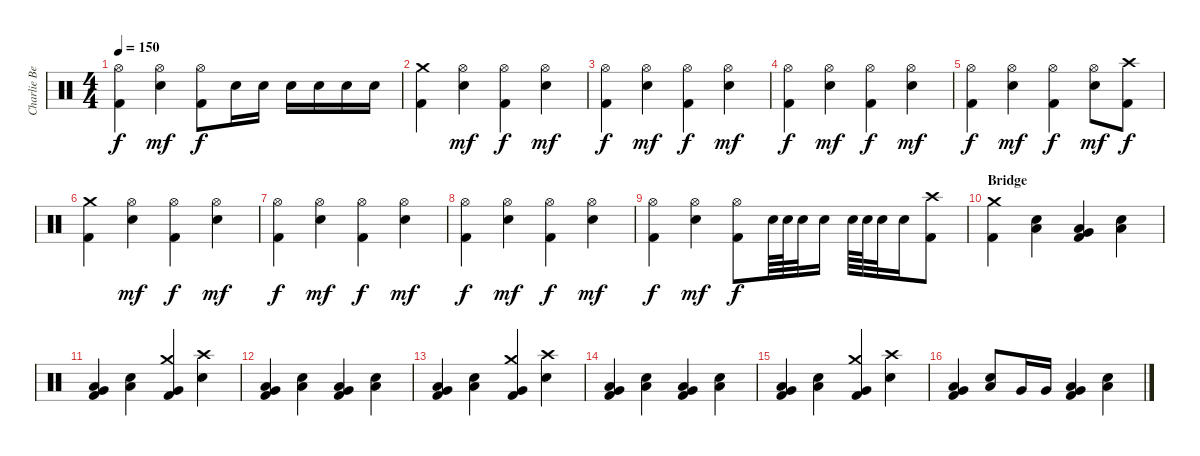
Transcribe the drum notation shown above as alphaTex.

\track ("Charlie Benante" "Charlie Be") {instrument percussion}
\staff {score}
\articulation defaults
\ts (4 4)
\tempo 150
\clef neutral
\ks c
("Kick (hit) 2" "Hi-Hat (open)").4{dy f} ("Hi-Hat (open)" "Snare (hit) 2").4{dy mf} ("Kick (hit) 2" "Hi-Hat (open)").8{dy f} "Snare (hit) 2".16 "Snare (hit) 2".16 "Snare (hit) 2".16 "Snare (hit) 2".16 "Snare (hit) 2".16 "Snare (hit) 2".16 |
("Kick (hit) 2" "Crash medium (hit)").4 ("Hi-Hat (open)" "Snare (hit) 2").4{dy mf} ("Kick (hit) 2" "Hi-Hat (open)").4{dy f} ("Hi-Hat (open)" "Snare (hit) 2").4{dy mf} |
("Kick (hit) 2" "Hi-Hat (open)").4{dy f} ("Hi-Hat (open)" "Snare (hit) 2").4{dy mf} ("Kick (hit) 2" "Hi-Hat (open)").4{dy f} ("Hi-Hat (open)" "Snare (hit) 2").4{dy mf} |
("Kick (hit) 2" "Hi-Hat (open)").4{dy f} ("Hi-Hat (open)" "Snare (hit) 2").4{dy mf} ("Kick (hit) 2" "Hi-Hat (open)").4{dy f} ("Hi-Hat (open)" "Snare (hit) 2").4{dy mf} |
("Kick (hit) 2" "Hi-Hat (open)").4{dy f} ("Hi-Hat (open)" "Snare (hit) 2").4{dy mf} ("Kick (hit) 2" "Hi-Hat (open)").4{dy f} ("Hi-Hat (open)" "Snare (hit) 2").8{dy mf} ("Kick (hit) 2" "Crash high (hit)").8{dy f} |
("Kick (hit) 2" "Crash medium (hit)").4 ("Hi-Hat (open)" "Snare (hit) 2").4{dy mf} ("Kick (hit) 2" "Hi-Hat (open)").4{dy f} ("Hi-Hat (open)" "Snare (hit) 2").4{dy mf} |
("Kick (hit) 2" "Hi-Hat (open)").4{dy f} ("Hi-Hat (open)" "Snare (hit) 2").4{dy mf} ("Kick (hit) 2" "Hi-Hat (open)").4{dy f} ("Hi-Hat (open)" "Snare (hit) 2").4{dy mf} |
("Kick (hit) 2" "Hi-Hat (open)").4{dy f} ("Hi-Hat (open)" "Snare (hit) 2").4{dy mf} ("Kick (hit) 2" "Hi-Hat (open)").4{dy f} ("Hi-Hat (open)" "Snare (hit) 2").4{dy mf} |
("Kick (hit) 2" "Hi-Hat (open)").4{dy f} ("Hi-Hat (open)" "Snare (hit) 2").4{dy mf} ("Kick (hit) 2" "Hi-Hat (open)").8{dy f} "Snare (hit) 2".64 "Snare (hit) 2".64 "Snare (hit)".32 "Snare (hit)".16 "Snare (hit) 2".64 "Snare (hit) 2".64 "Snare (hit)".32 "Snare (hit)".16 ("Kick (hit) 2" "Crash high (hit)").8 |
\section ("" "Bridge")
("Kick (hit) 2" "Crash medium (hit)").4 ("Snare (hit) 2" "Low Tom (hit)").4 ("Kick (hit) 2" "Low Tom (hit)" "Very Low Tom (hit)").4 ("Snare (hit) 2" "Low Tom (hit)").4 |
("Kick (hit) 2" "Low Tom (hit)" "Very Low Tom (hit)").4 ("Snare (hit) 2" "Low Tom (hit)").4 ("Kick (hit) 2" "Crash medium (hit)" "Very Low Tom (hit)").4 ("Crash high (hit)" "Snare (hit) 2").4 |
("Kick (hit) 2" "Low Tom (hit)" "Very Low Tom (hit)").4 ("Snare (hit) 2" "Low Tom (hit)").4 ("Kick (hit) 2" "Low Tom (hit)" "Very Low Tom (hit)").4 ("Snare (hit) 2" "Low Tom (hit)").4 |
("Kick (hit) 2" "Low Tom (hit)" "Very Low Tom (hit)").4 ("Snare (hit) 2" "Low Tom (hit)").4 ("Kick (hit) 2" "Crash medium (hit)" "Very Low Tom (hit)").4 ("Crash high (hit)" "Snare (hit) 2").4 |
("Kick (hit) 2" "Low Tom (hit)" "Very Low Tom (hit)").4 ("Snare (hit) 2" "Low Tom (hit)").4 ("Kick (hit) 2" "Low Tom (hit)" "Very Low Tom (hit)").4 ("Snare (hit) 2" "Low Tom (hit)").4 |
("Kick (hit) 2" "Low Tom (hit)" "Very Low Tom (hit)").4 ("Snare (hit) 2" "Low Tom (hit)").4 ("Kick (hit) 2" "Crash medium (hit)" "Very Low Tom (hit)").4 ("Crash high (hit)" "Snare (hit) 2").4 |
("Kick (hit) 2" "Low Tom (hit)" "Very Low Tom (hit)").4 ("Snare (hit) 2" "Low Tom (hit)").8 "Very Low Tom (hit)".16 "Very Low Tom (hit)".16 ("Kick (hit) 2" "Low Tom (hit)" "Very Low Tom (hit)").4 ("Snare (hit) 2" "Low Tom (hit)").4
